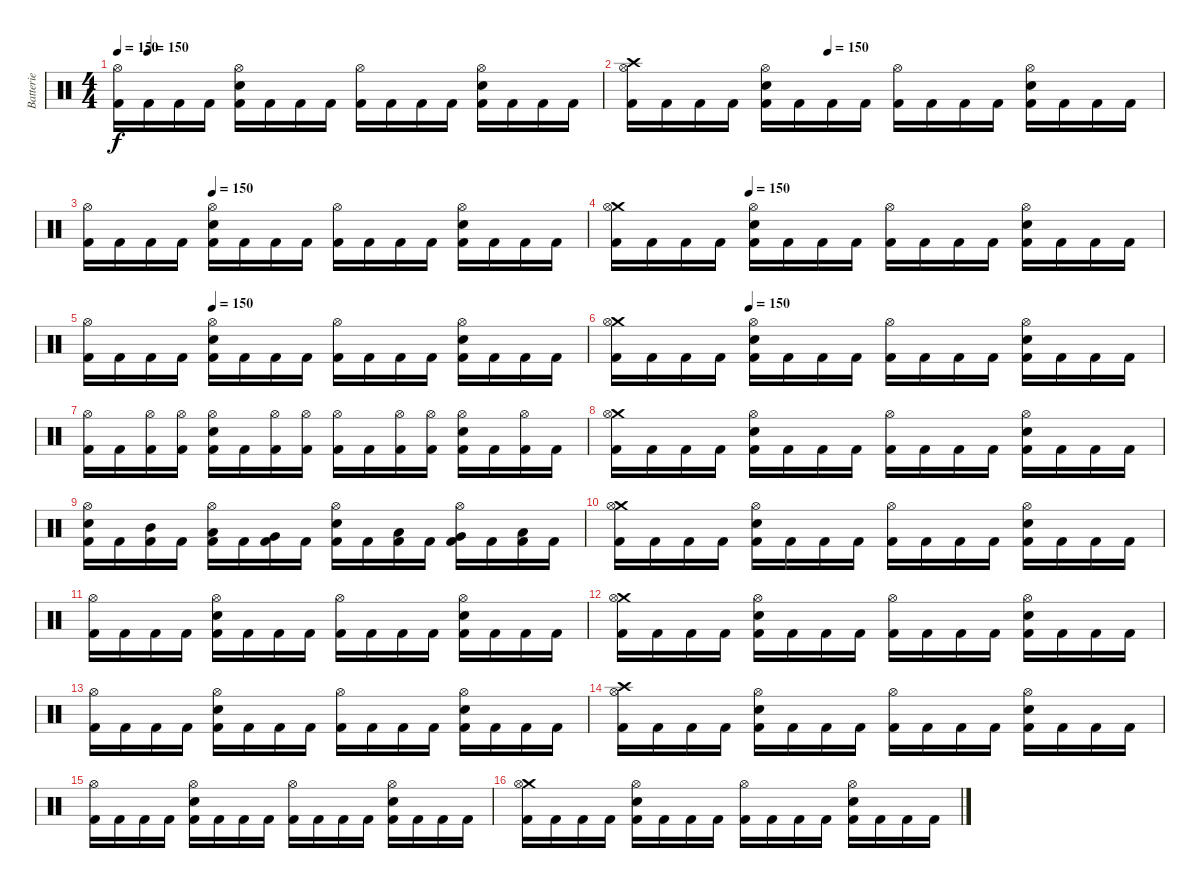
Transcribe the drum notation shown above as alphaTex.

\track ("Batterie" "Batterie") {instrument percussion}
\staff {score}
\articulation defaults
\ts (4 4)
\tempo 150
\tempo (150 0.0625)
\clef neutral
\ks c
("Hi-Hat (open)" "Kick (hit) 2").16{dy f} "Kick (hit) 2".16 "Kick (hit) 2".16 "Kick (hit) 2".16 ("Electric Snare (hit)" "Hi-Hat (open)" "Kick (hit) 2").16 "Kick (hit) 2".16 "Kick (hit) 2".16 "Kick (hit) 2".16 ("Hi-Hat (open)" "Kick (hit) 2").16 "Kick (hit) 2".16 "Kick (hit) 2".16 "Kick (hit) 2".16 ("Electric Snare (hit)" "Hi-Hat (open)" "Kick (hit) 2").16 "Kick (hit) 2".16 "Kick (hit) 2".16 "Kick (hit) 2".16 |
\tempo (150 0.375)
("Crash high (hit)" "Hi-Hat (open)" "Kick (hit) 2").16 "Kick (hit) 2".16 "Kick (hit) 2".16 "Kick (hit) 2".16 ("Electric Snare (hit)" "Hi-Hat (open)" "Kick (hit) 2").16 "Kick (hit) 2".16 "Kick (hit) 2".16 "Kick (hit) 2".16 ("Hi-Hat (open)" "Kick (hit) 2").16 "Kick (hit) 2".16 "Kick (hit) 2".16 "Kick (hit) 2".16 ("Electric Snare (hit)" "Hi-Hat (open)" "Kick (hit) 2").16 "Kick (hit) 2".16 "Kick (hit) 2".16 "Kick (hit) 2".16 |
\tempo (150 0.25)
("Hi-Hat (open)" "Kick (hit) 2").16 "Kick (hit) 2".16 "Kick (hit) 2".16 "Kick (hit) 2".16 ("Electric Snare (hit)" "Hi-Hat (open)" "Kick (hit) 2").16 "Kick (hit) 2".16 "Kick (hit) 2".16 "Kick (hit) 2".16 ("Hi-Hat (open)" "Kick (hit) 2").16 "Kick (hit) 2".16 "Kick (hit) 2".16 "Kick (hit) 2".16 ("Electric Snare (hit)" "Hi-Hat (open)" "Kick (hit) 2").16 "Kick (hit) 2".16 "Kick (hit) 2".16 "Kick (hit) 2".16 |
\tempo (150 0.25)
("Crash medium (hit)" "Hi-Hat (open)" "Kick (hit) 2").16 "Kick (hit) 2".16 "Kick (hit) 2".16 "Kick (hit) 2".16 ("Electric Snare (hit)" "Hi-Hat (open)" "Kick (hit) 2").16 "Kick (hit) 2".16 "Kick (hit) 2".16 "Kick (hit) 2".16 ("Hi-Hat (open)" "Kick (hit) 2").16 "Kick (hit) 2".16 "Kick (hit) 2".16 "Kick (hit) 2".16 ("Electric Snare (hit)" "Hi-Hat (open)" "Kick (hit) 2").16 "Kick (hit) 2".16 "Kick (hit) 2".16 "Kick (hit) 2".16 |
\tempo (150 0.25)
("Hi-Hat (open)" "Kick (hit) 2").16 "Kick (hit) 2".16 "Kick (hit) 2".16 "Kick (hit) 2".16 ("Electric Snare (hit)" "Hi-Hat (open)" "Kick (hit) 2").16 "Kick (hit) 2".16 "Kick (hit) 2".16 "Kick (hit) 2".16 ("Hi-Hat (open)" "Kick (hit) 2").16 "Kick (hit) 2".16 "Kick (hit) 2".16 "Kick (hit) 2".16 ("Electric Snare (hit)" "Hi-Hat (open)" "Kick (hit) 2").16 "Kick (hit) 2".16 "Kick (hit) 2".16 "Kick (hit) 2".16 |
\tempo (150 0.25)
("Crash medium (hit)" "Hi-Hat (open)" "Kick (hit) 2").16 "Kick (hit) 2".16 "Kick (hit) 2".16 "Kick (hit) 2".16 ("Electric Snare (hit)" "Hi-Hat (open)" "Kick (hit) 2").16 "Kick (hit) 2".16 "Kick (hit) 2".16 "Kick (hit) 2".16 ("Hi-Hat (open)" "Kick (hit) 2").16 "Kick (hit) 2".16 "Kick (hit) 2".16 "Kick (hit) 2".16 ("Electric Snare (hit)" "Hi-Hat (open)" "Kick (hit) 2").16 "Kick (hit) 2".16 "Kick (hit) 2".16 "Kick (hit) 2".16 |
("Hi-Hat (open)" "Kick (hit) 2").16 "Kick (hit) 2".16 ("Hi-Hat (open)" "Kick (hit) 2").16 ("Hi-Hat (open)" "Kick (hit) 2").16 ("Electric Snare (hit)" "Hi-Hat (open)" "Kick (hit) 2").16 "Kick (hit) 2".16 ("Hi-Hat (open)" "Kick (hit) 2").16 ("Hi-Hat (open)" "Kick (hit) 2").16 ("Hi-Hat (open)" "Kick (hit) 2").16 "Kick (hit) 2".16 ("Hi-Hat (open)" "Kick (hit) 2").16 ("Hi-Hat (open)" "Kick (hit) 2").16 ("Electric Snare (hit)" "Hi-Hat (open)" "Kick (hit) 2").16 "Kick (hit) 2".16 ("Hi-Hat (open)" "Kick (hit) 2").16 "Kick (hit) 2".16 |
("Crash medium (hit)" "Hi-Hat (open)" "Kick (hit) 2").16 "Kick (hit) 2".16 "Kick (hit) 2".16 "Kick (hit) 2".16 ("Electric Snare (hit)" "Hi-Hat (open)" "Kick (hit) 2").16 "Kick (hit) 2".16 "Kick (hit) 2".16 "Kick (hit) 2".16 ("Hi-Hat (open)" "Kick (hit) 2").16 "Kick (hit) 2".16 "Kick (hit) 2".16 "Kick (hit) 2".16 ("Electric Snare (hit)" "Hi-Hat (open)" "Kick (hit) 2").16 "Kick (hit) 2".16 "Kick (hit) 2".16 "Kick (hit) 2".16 |
("Electric Snare (hit)" "Hi-Hat (open)" "Kick (hit) 2").16 "Kick (hit) 2".16 ("Mid Tom (hit)" "Kick (hit) 2").16 "Kick (hit) 2".16 ("Low Tom (hit)" "Hi-Hat (open)" "Kick (hit) 2").16 "Kick (hit) 2".16 ("Very Low Tom (hit)" "Kick (hit) 2").16 "Kick (hit) 2".16 ("Electric Snare (hit)" "Hi-Hat (open)" "Kick (hit) 2").16 "Kick (hit) 2".16 ("Low Tom (hit)" "Kick (hit) 2").16 "Kick (hit) 2".16 ("Very Low Tom (hit)" "Hi-Hat (open)" "Kick (hit) 2").16 "Kick (hit) 2".16 ("Low Floor Tom (hit)" "Kick (hit) 2").16 "Kick (hit) 2".16 |
("Crash medium (hit)" "Hi-Hat (open)" "Kick (hit) 2").16 "Kick (hit) 2".16 "Kick (hit) 2".16 "Kick (hit) 2".16 ("Electric Snare (hit)" "Hi-Hat (open)" "Kick (hit) 2").16 "Kick (hit) 2".16 "Kick (hit) 2".16 "Kick (hit) 2".16 ("Hi-Hat (open)" "Kick (hit) 2").16 "Kick (hit) 2".16 "Kick (hit) 2".16 "Kick (hit) 2".16 ("Electric Snare (hit)" "Hi-Hat (open)" "Kick (hit) 2").16 "Kick (hit) 2".16 "Kick (hit) 2".16 "Kick (hit) 2".16 |
("Hi-Hat (open)" "Kick (hit) 2").16 "Kick (hit) 2".16 "Kick (hit) 2".16 "Kick (hit) 2".16 ("Electric Snare (hit)" "Hi-Hat (open)" "Kick (hit) 2").16 "Kick (hit) 2".16 "Kick (hit) 2".16 "Kick (hit) 2".16 ("Hi-Hat (open)" "Kick (hit) 2").16 "Kick (hit) 2".16 "Kick (hit) 2".16 "Kick (hit) 2".16 ("Electric Snare (hit)" "Hi-Hat (open)" "Kick (hit) 2").16 "Kick (hit) 2".16 "Kick (hit) 2".16 "Kick (hit) 2".16 |
("Crash medium (hit)" "Hi-Hat (open)" "Kick (hit) 2").16 "Kick (hit) 2".16 "Kick (hit) 2".16 "Kick (hit) 2".16 ("Electric Snare (hit)" "Hi-Hat (open)" "Kick (hit) 2").16 "Kick (hit) 2".16 "Kick (hit) 2".16 "Kick (hit) 2".16 ("Hi-Hat (open)" "Kick (hit) 2").16 "Kick (hit) 2".16 "Kick (hit) 2".16 "Kick (hit) 2".16 ("Electric Snare (hit)" "Hi-Hat (open)" "Kick (hit) 2").16 "Kick (hit) 2".16 "Kick (hit) 2".16 "Kick (hit) 2".16 |
("Hi-Hat (open)" "Kick (hit) 2").16 "Kick (hit) 2".16 "Kick (hit) 2".16 "Kick (hit) 2".16 ("Electric Snare (hit)" "Hi-Hat (open)" "Kick (hit) 2").16 "Kick (hit) 2".16 "Kick (hit) 2".16 "Kick (hit) 2".16 ("Hi-Hat (open)" "Kick (hit) 2").16 "Kick (hit) 2".16 "Kick (hit) 2".16 "Kick (hit) 2".16 ("Electric Snare (hit)" "Hi-Hat (open)" "Kick (hit) 2").16 "Kick (hit) 2".16 "Kick (hit) 2".16 "Kick (hit) 2".16 |
("Crash high (hit)" "Hi-Hat (open)" "Kick (hit) 2").16 "Kick (hit) 2".16 "Kick (hit) 2".16 "Kick (hit) 2".16 ("Electric Snare (hit)" "Hi-Hat (open)" "Kick (hit) 2").16 "Kick (hit) 2".16 "Kick (hit) 2".16 "Kick (hit) 2".16 ("Hi-Hat (open)" "Kick (hit) 2").16 "Kick (hit) 2".16 "Kick (hit) 2".16 "Kick (hit) 2".16 ("Electric Snare (hit)" "Hi-Hat (open)" "Kick (hit) 2").16 "Kick (hit) 2".16 "Kick (hit) 2".16 "Kick (hit) 2".16 |
("Hi-Hat (open)" "Kick (hit) 2").16 "Kick (hit) 2".16 "Kick (hit) 2".16 "Kick (hit) 2".16 ("Electric Snare (hit)" "Hi-Hat (open)" "Kick (hit) 2").16 "Kick (hit) 2".16 "Kick (hit) 2".16 "Kick (hit) 2".16 ("Hi-Hat (open)" "Kick (hit) 2").16 "Kick (hit) 2".16 "Kick (hit) 2".16 "Kick (hit) 2".16 ("Electric Snare (hit)" "Hi-Hat (open)" "Kick (hit) 2").16 "Kick (hit) 2".16 "Kick (hit) 2".16 "Kick (hit) 2".16 |
("Crash medium (hit)" "Hi-Hat (open)" "Kick (hit) 2").16 "Kick (hit) 2".16 "Kick (hit) 2".16 "Kick (hit) 2".16 ("Electric Snare (hit)" "Hi-Hat (open)" "Kick (hit) 2").16 "Kick (hit) 2".16 "Kick (hit) 2".16 "Kick (hit) 2".16 ("Hi-Hat (open)" "Kick (hit) 2").16 "Kick (hit) 2".16 "Kick (hit) 2".16 "Kick (hit) 2".16 ("Electric Snare (hit)" "Hi-Hat (open)" "Kick (hit) 2").16 "Kick (hit) 2".16 "Kick (hit) 2".16 "Kick (hit) 2".16
